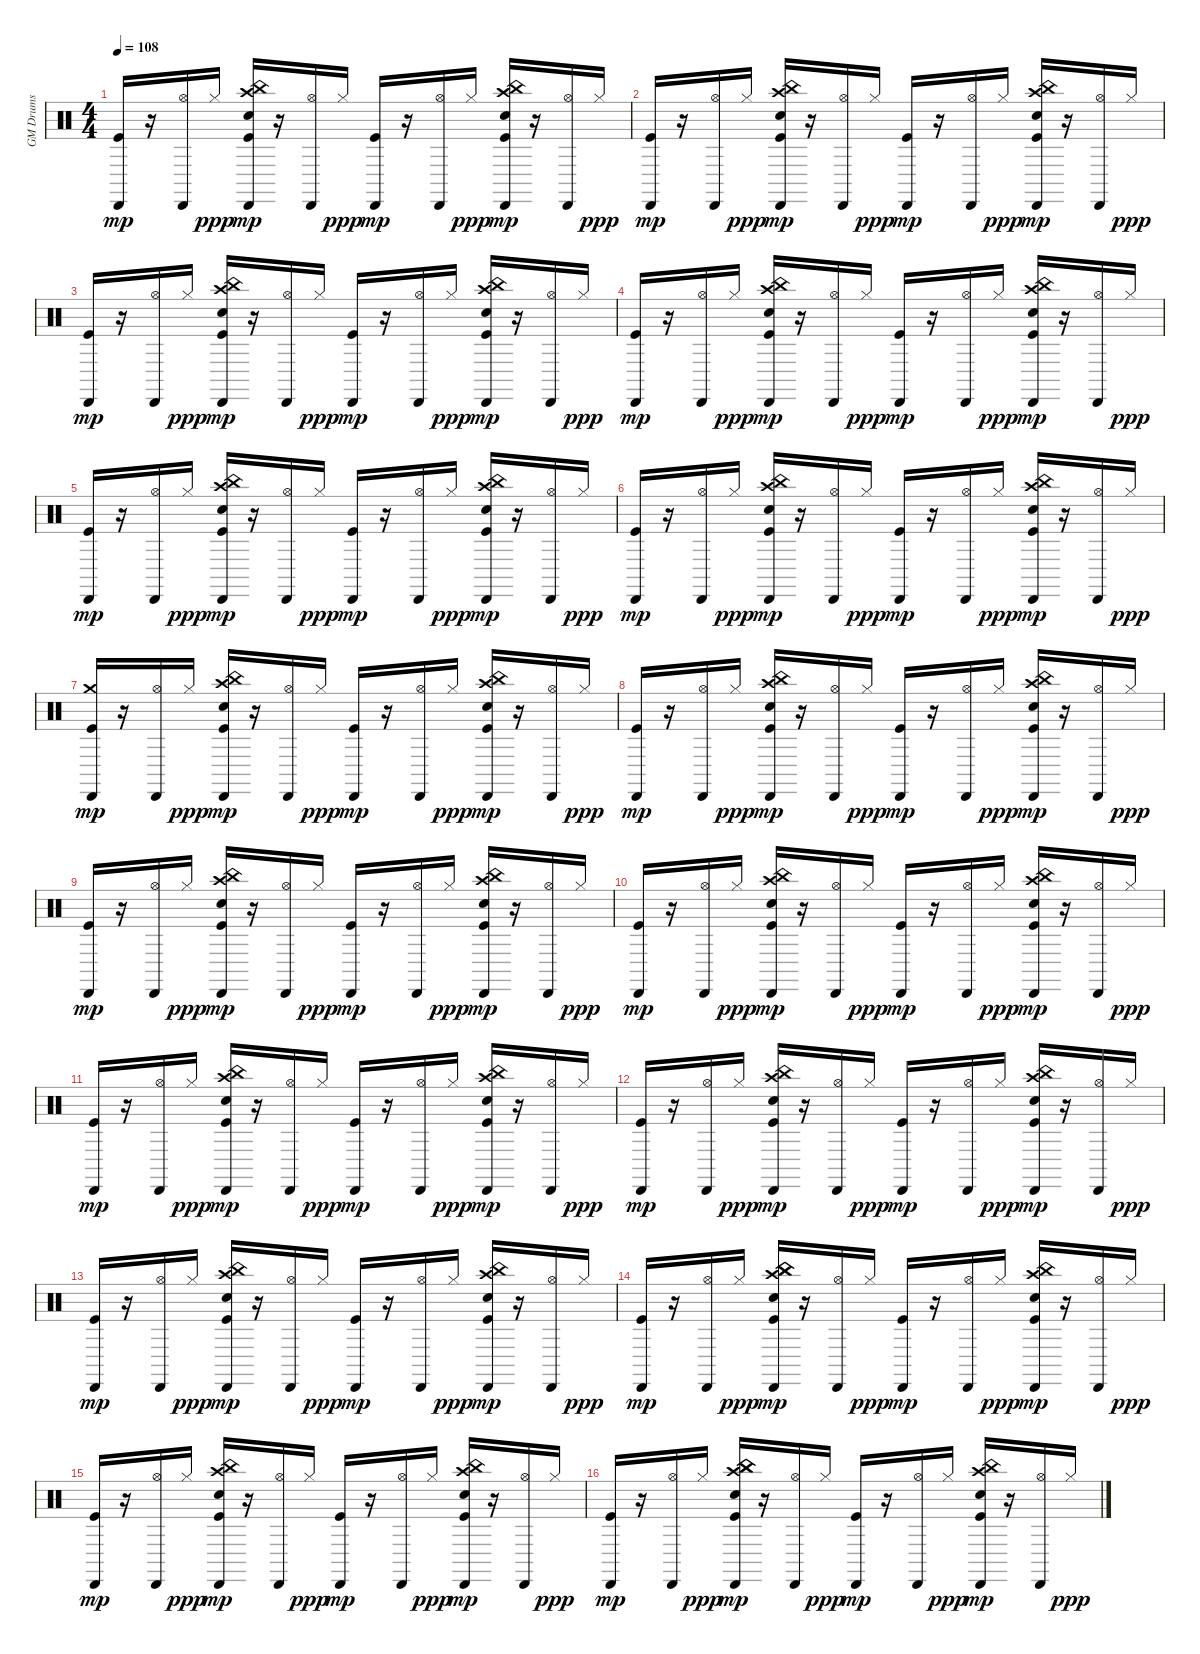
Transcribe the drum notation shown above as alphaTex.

\track ("GM Drums" "GM Drums") {instrument percussion}
\staff {score}
\articulation defaults
\ts (4 4)
\tempo 108
\clef neutral
\ks c
("Kick (hit)" "Cabasa (hit)").16{dy mp} r.16 ("Hi-Hat (open)" "Cabasa (hit)").16 "Hi-Hat (closed)".16{dy ppp} ("Kick (hit)" "Electric Snare (hit)" "Crash high (hit)" "China (hit)" "Cabasa (hit)").16{dy mp} r.16 ("Hi-Hat (open)" "Cabasa (hit)").16 "Hi-Hat (closed)".16{dy ppp} ("Kick (hit)" "Cabasa (hit)").16{dy mp} r.16 ("Hi-Hat (open)" "Cabasa (hit)").16 "Hi-Hat (closed)".16{dy ppp} ("Kick (hit)" "Electric Snare (hit)" "Crash high (hit)" "China (hit)" "Cabasa (hit)").16{dy mp} r.16 ("Hi-Hat (open)" "Cabasa (hit)").16 "Hi-Hat (closed)".16{dy ppp} |
("Kick (hit)" "Cabasa (hit)").16{dy mp} r.16 ("Hi-Hat (open)" "Cabasa (hit)").16 "Hi-Hat (closed)".16{dy ppp} ("Kick (hit)" "Electric Snare (hit)" "Crash high (hit)" "China (hit)" "Cabasa (hit)").16{dy mp} r.16 ("Hi-Hat (open)" "Cabasa (hit)").16 "Hi-Hat (closed)".16{dy ppp} ("Kick (hit)" "Cabasa (hit)").16{dy mp} r.16 ("Hi-Hat (open)" "Cabasa (hit)").16 "Hi-Hat (closed)".16{dy ppp} ("Kick (hit)" "Electric Snare (hit)" "Crash high (hit)" "China (hit)" "Cabasa (hit)").16{dy mp} r.16 ("Hi-Hat (open)" "Cabasa (hit)").16 "Hi-Hat (closed)".16{dy ppp} |
("Kick (hit)" "Cabasa (hit)").16{dy mp} r.16 ("Hi-Hat (open)" "Cabasa (hit)").16 "Hi-Hat (closed)".16{dy ppp} ("Kick (hit)" "Electric Snare (hit)" "Crash high (hit)" "China (hit)" "Cabasa (hit)").16{dy mp} r.16 ("Hi-Hat (open)" "Cabasa (hit)").16 "Hi-Hat (closed)".16{dy ppp} ("Kick (hit)" "Cabasa (hit)").16{dy mp} r.16 ("Hi-Hat (open)" "Cabasa (hit)").16 "Hi-Hat (closed)".16{dy ppp} ("Kick (hit)" "Electric Snare (hit)" "Crash high (hit)" "China (hit)" "Cabasa (hit)").16{dy mp} r.16 ("Hi-Hat (open)" "Cabasa (hit)").16 "Hi-Hat (closed)".16{dy ppp} |
("Kick (hit)" "Cabasa (hit)").16{dy mp} r.16 ("Hi-Hat (open)" "Cabasa (hit)").16 "Hi-Hat (closed)".16{dy ppp} ("Kick (hit)" "Electric Snare (hit)" "Crash high (hit)" "China (hit)" "Cabasa (hit)").16{dy mp} r.16 ("Hi-Hat (open)" "Cabasa (hit)").16 "Hi-Hat (closed)".16{dy ppp} ("Kick (hit)" "Cabasa (hit)").16{dy mp} r.16 ("Hi-Hat (open)" "Cabasa (hit)").16 "Hi-Hat (closed)".16{dy ppp} ("Kick (hit)" "Electric Snare (hit)" "Crash high (hit)" "China (hit)" "Cabasa (hit)").16{dy mp} r.16 ("Hi-Hat (open)" "Cabasa (hit)").16 "Hi-Hat (closed)".16{dy ppp} |
("Kick (hit)" "Cabasa (hit)").16{dy mp} r.16 ("Hi-Hat (open)" "Cabasa (hit)").16 "Hi-Hat (closed)".16{dy ppp} ("Kick (hit)" "Electric Snare (hit)" "Crash high (hit)" "China (hit)" "Cabasa (hit)").16{dy mp} r.16 ("Hi-Hat (open)" "Cabasa (hit)").16 "Hi-Hat (closed)".16{dy ppp} ("Kick (hit)" "Cabasa (hit)").16{dy mp} r.16 ("Hi-Hat (open)" "Cabasa (hit)").16 "Hi-Hat (closed)".16{dy ppp} ("Kick (hit)" "Electric Snare (hit)" "Crash high (hit)" "China (hit)" "Cabasa (hit)").16{dy mp} r.16 ("Hi-Hat (open)" "Cabasa (hit)").16 "Hi-Hat (closed)".16{dy ppp} |
("Kick (hit)" "Cabasa (hit)").16{dy mp} r.16 ("Hi-Hat (open)" "Cabasa (hit)").16 "Hi-Hat (closed)".16{dy ppp} ("Kick (hit)" "Electric Snare (hit)" "Crash high (hit)" "China (hit)" "Cabasa (hit)").16{dy mp} r.16 ("Hi-Hat (open)" "Cabasa (hit)").16 "Hi-Hat (closed)".16{dy ppp} ("Kick (hit)" "Cabasa (hit)").16{dy mp} r.16 ("Hi-Hat (open)" "Cabasa (hit)").16 "Hi-Hat (closed)".16{dy ppp} ("Kick (hit)" "Electric Snare (hit)" "Crash high (hit)" "China (hit)" "Cabasa (hit)").16{dy mp} r.16 ("Hi-Hat (open)" "Cabasa (hit)").16 "Hi-Hat (closed)".16{dy ppp} |
("Kick (hit)" "Crash medium (hit)" "Cabasa (hit)").16{dy mp} r.16 ("Hi-Hat (open)" "Cabasa (hit)").16 "Hi-Hat (closed)".16{dy ppp} ("Kick (hit)" "Electric Snare (hit)" "Crash high (hit)" "China (hit)" "Cabasa (hit)").16{dy mp} r.16 ("Hi-Hat (open)" "Cabasa (hit)").16 "Hi-Hat (closed)".16{dy ppp} ("Kick (hit)" "Cabasa (hit)").16{dy mp} r.16 ("Hi-Hat (open)" "Cabasa (hit)").16 "Hi-Hat (closed)".16{dy ppp} ("Kick (hit)" "Electric Snare (hit)" "Crash high (hit)" "China (hit)" "Cabasa (hit)").16{dy mp} r.16 ("Hi-Hat (open)" "Cabasa (hit)").16 "Hi-Hat (closed)".16{dy ppp} |
("Kick (hit)" "Cabasa (hit)").16{dy mp} r.16 ("Hi-Hat (open)" "Cabasa (hit)").16 "Hi-Hat (closed)".16{dy ppp} ("Kick (hit)" "Electric Snare (hit)" "Crash high (hit)" "China (hit)" "Cabasa (hit)").16{dy mp} r.16 ("Hi-Hat (open)" "Cabasa (hit)").16 "Hi-Hat (closed)".16{dy ppp} ("Kick (hit)" "Cabasa (hit)").16{dy mp} r.16 ("Hi-Hat (open)" "Cabasa (hit)").16 "Hi-Hat (closed)".16{dy ppp} ("Kick (hit)" "Electric Snare (hit)" "Crash high (hit)" "China (hit)" "Cabasa (hit)").16{dy mp} r.16 ("Hi-Hat (open)" "Cabasa (hit)").16 "Hi-Hat (closed)".16{dy ppp} |
("Kick (hit)" "Cabasa (hit)").16{dy mp} r.16 ("Hi-Hat (open)" "Cabasa (hit)").16 "Hi-Hat (closed)".16{dy ppp} ("Kick (hit)" "Electric Snare (hit)" "Crash high (hit)" "China (hit)" "Cabasa (hit)").16{dy mp} r.16 ("Hi-Hat (open)" "Cabasa (hit)").16 "Hi-Hat (closed)".16{dy ppp} ("Kick (hit)" "Cabasa (hit)").16{dy mp} r.16 ("Hi-Hat (open)" "Cabasa (hit)").16 "Hi-Hat (closed)".16{dy ppp} ("Kick (hit)" "Electric Snare (hit)" "Crash high (hit)" "China (hit)" "Cabasa (hit)").16{dy mp} r.16 ("Hi-Hat (open)" "Cabasa (hit)").16 "Hi-Hat (closed)".16{dy ppp} |
("Kick (hit)" "Cabasa (hit)").16{dy mp} r.16 ("Hi-Hat (open)" "Cabasa (hit)").16 "Hi-Hat (closed)".16{dy ppp} ("Kick (hit)" "Electric Snare (hit)" "Crash high (hit)" "China (hit)" "Cabasa (hit)").16{dy mp} r.16 ("Hi-Hat (open)" "Cabasa (hit)").16 "Hi-Hat (closed)".16{dy ppp} ("Kick (hit)" "Cabasa (hit)").16{dy mp} r.16 ("Hi-Hat (open)" "Cabasa (hit)").16 "Hi-Hat (closed)".16{dy ppp} ("Kick (hit)" "Electric Snare (hit)" "Crash high (hit)" "China (hit)" "Cabasa (hit)").16{dy mp} r.16 ("Hi-Hat (open)" "Cabasa (hit)").16 "Hi-Hat (closed)".16{dy ppp} |
("Kick (hit)" "Cabasa (hit)").16{dy mp} r.16 ("Hi-Hat (open)" "Cabasa (hit)").16 "Hi-Hat (closed)".16{dy ppp} ("Kick (hit)" "Electric Snare (hit)" "Crash high (hit)" "China (hit)" "Cabasa (hit)").16{dy mp} r.16 ("Hi-Hat (open)" "Cabasa (hit)").16 "Hi-Hat (closed)".16{dy ppp} ("Kick (hit)" "Cabasa (hit)").16{dy mp} r.16 ("Hi-Hat (open)" "Cabasa (hit)").16 "Hi-Hat (closed)".16{dy ppp} ("Kick (hit)" "Electric Snare (hit)" "Crash high (hit)" "China (hit)" "Cabasa (hit)").16{dy mp} r.16 ("Hi-Hat (open)" "Cabasa (hit)").16 "Hi-Hat (closed)".16{dy ppp} |
("Kick (hit)" "Cabasa (hit)").16{dy mp} r.16 ("Hi-Hat (open)" "Cabasa (hit)").16 "Hi-Hat (closed)".16{dy ppp} ("Kick (hit)" "Electric Snare (hit)" "Crash high (hit)" "China (hit)" "Cabasa (hit)").16{dy mp} r.16 ("Hi-Hat (open)" "Cabasa (hit)").16 "Hi-Hat (closed)".16{dy ppp} ("Kick (hit)" "Cabasa (hit)").16{dy mp} r.16 ("Hi-Hat (open)" "Cabasa (hit)").16 "Hi-Hat (closed)".16{dy ppp} ("Kick (hit)" "Electric Snare (hit)" "Crash high (hit)" "China (hit)" "Cabasa (hit)").16{dy mp} r.16 ("Hi-Hat (open)" "Cabasa (hit)").16 "Hi-Hat (closed)".16{dy ppp} |
("Kick (hit)" "Cabasa (hit)").16{dy mp} r.16 ("Hi-Hat (open)" "Cabasa (hit)").16 "Hi-Hat (closed)".16{dy ppp} ("Kick (hit)" "Electric Snare (hit)" "Crash high (hit)" "China (hit)" "Cabasa (hit)").16{dy mp} r.16 ("Hi-Hat (open)" "Cabasa (hit)").16 "Hi-Hat (closed)".16{dy ppp} ("Kick (hit)" "Cabasa (hit)").16{dy mp} r.16 ("Hi-Hat (open)" "Cabasa (hit)").16 "Hi-Hat (closed)".16{dy ppp} ("Kick (hit)" "Electric Snare (hit)" "Crash high (hit)" "China (hit)" "Cabasa (hit)").16{dy mp} r.16 ("Hi-Hat (open)" "Cabasa (hit)").16 "Hi-Hat (closed)".16{dy ppp} |
("Kick (hit)" "Cabasa (hit)").16{dy mp} r.16 ("Hi-Hat (open)" "Cabasa (hit)").16 "Hi-Hat (closed)".16{dy ppp} ("Kick (hit)" "Electric Snare (hit)" "Crash high (hit)" "China (hit)" "China (hit)" "Cabasa (hit)").16{dy mp} r.16 ("Hi-Hat (open)" "Cabasa (hit)").16 "Hi-Hat (closed)".16{dy ppp} ("Kick (hit)" "Cabasa (hit)").16{dy mp} r.16 ("Hi-Hat (open)" "Cabasa (hit)").16 "Hi-Hat (closed)".16{dy ppp} ("Kick (hit)" "Electric Snare (hit)" "Crash high (hit)" "China (hit)" "Cabasa (hit)").16{dy mp} r.16 ("Hi-Hat (open)" "Cabasa (hit)").16 "Hi-Hat (closed)".16{dy ppp} |
("Kick (hit)" "Cabasa (hit)").16{dy mp} r.16 ("Hi-Hat (open)" "Cabasa (hit)").16 "Hi-Hat (closed)".16{dy ppp} ("Kick (hit)" "Electric Snare (hit)" "Crash high (hit)" "China (hit)" "Cabasa (hit)").16{dy mp} r.16 ("Hi-Hat (open)" "Cabasa (hit)").16 "Hi-Hat (closed)".16{dy ppp} ("Kick (hit)" "Cabasa (hit)").16{dy mp} r.16 ("Hi-Hat (open)" "Cabasa (hit)").16 "Hi-Hat (closed)".16{dy ppp} ("Kick (hit)" "Electric Snare (hit)" "Crash high (hit)" "China (hit)" "Cabasa (hit)").16{dy mp} r.16 ("Hi-Hat (open)" "Cabasa (hit)").16 "Hi-Hat (closed)".16{dy ppp} |
("Kick (hit)" "Cabasa (hit)").16{dy mp} r.16 ("Hi-Hat (open)" "Cabasa (hit)").16 "Hi-Hat (closed)".16{dy ppp} ("Kick (hit)" "Electric Snare (hit)" "Crash high (hit)" "China (hit)" "China (hit)" "Cabasa (hit)").16{dy mp} r.16 ("Hi-Hat (open)" "Cabasa (hit)").16 "Hi-Hat (closed)".16{dy ppp} ("Kick (hit)" "Cabasa (hit)").16{dy mp} r.16 ("Hi-Hat (open)" "Cabasa (hit)").16 "Hi-Hat (closed)".16{dy ppp} ("Kick (hit)" "Electric Snare (hit)" "Crash high (hit)" "China (hit)" "Cabasa (hit)").16{dy mp} r.16 ("Hi-Hat (open)" "Cabasa (hit)").16 "Hi-Hat (closed)".16{dy ppp}
